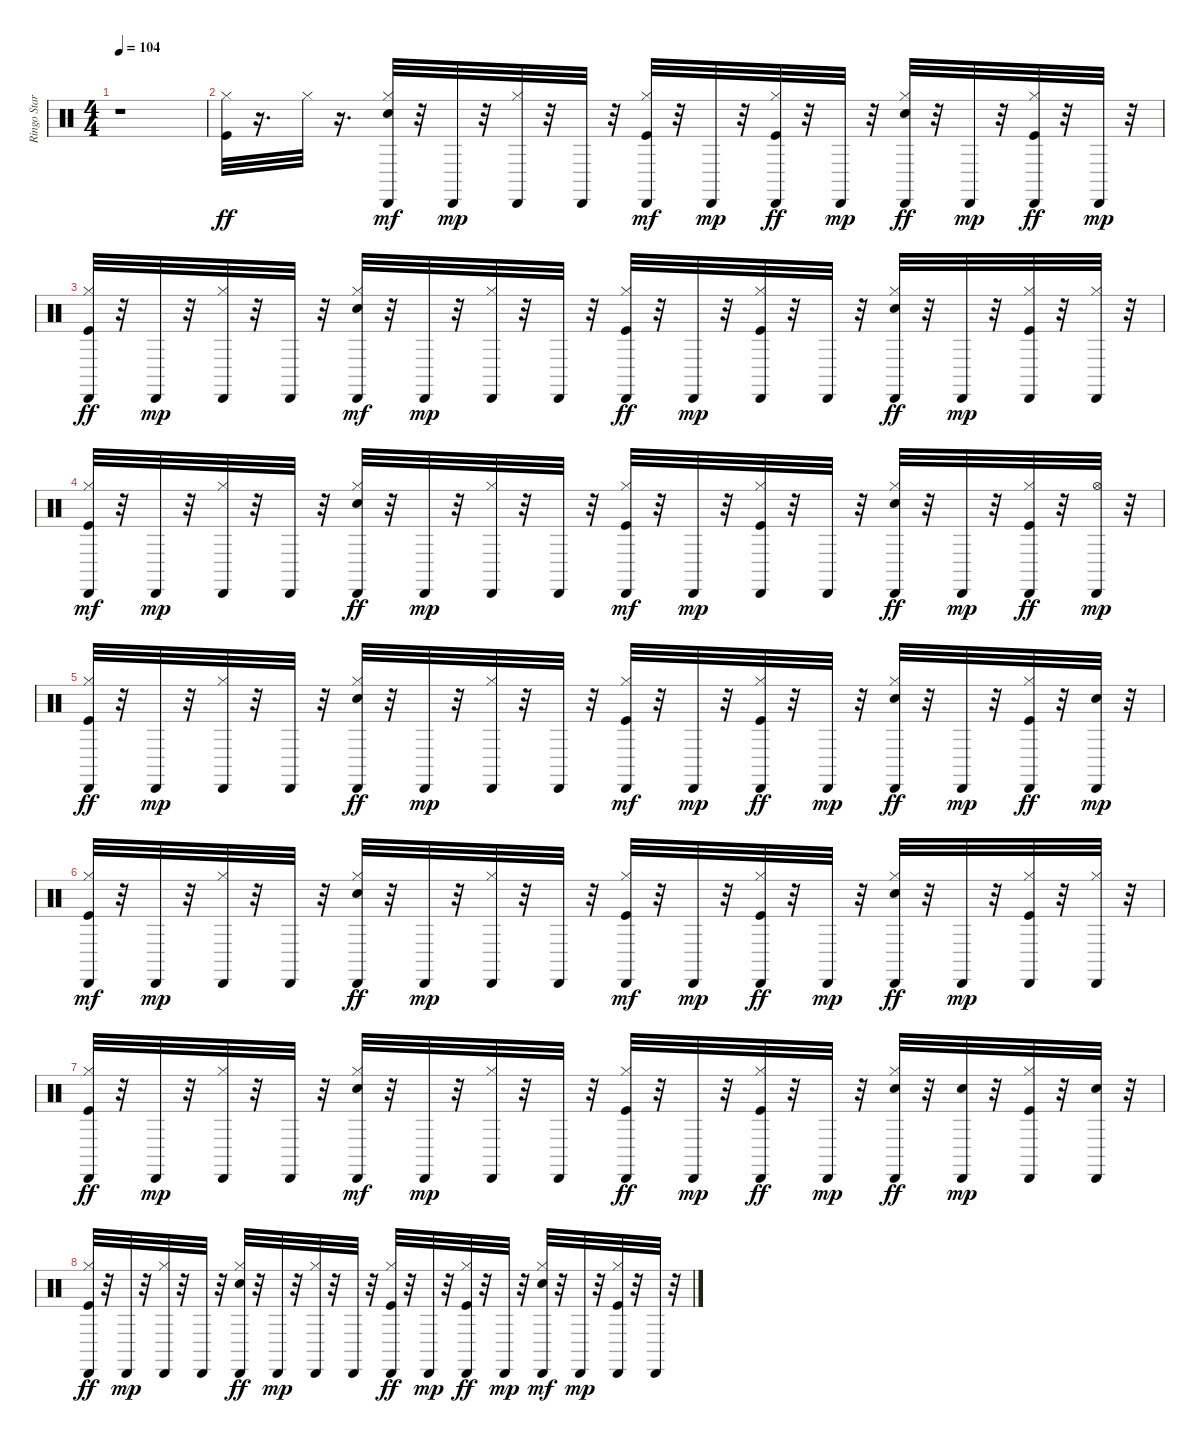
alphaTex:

\track ("Ringo Starr - Drums" "Ringo Star") {instrument percussion}
\staff {score}
\articulation defaults
\ts (4 4)
\tempo 104
\clef neutral
\ks c
r.1{dy ff} |
("Hi-Hat (closed)" "Kick (hit)").32 r.16{d} "Hi-Hat (closed)".32 r.16{d} ("Hi-Hat (closed)" "Snare (hit) 2" "Cabasa (hit)").32{dy mf} r.32 "Cabasa (hit)".32{dy mp} r.32 ("Hi-Hat (closed)" "Cabasa (hit)").32 r.32 "Cabasa (hit)".32 r.32 ("Hi-Hat (closed)" "Kick (hit)" "Cabasa (hit)").32{dy mf} r.32 "Cabasa (hit)".32{dy mp} r.32 ("Hi-Hat (closed)" "Cabasa (hit)" "Kick (hit)").32{dy ff} r.32 "Cabasa (hit)".32{dy mp} r.32 ("Hi-Hat (closed)" "Cabasa (hit)" "Snare (hit) 2").32{dy ff} r.32 "Cabasa (hit)".32{dy mp} r.32 ("Hi-Hat (closed)" "Cabasa (hit)" "Kick (hit)").32{dy ff} r.32 "Cabasa (hit)".32{dy mp} r.32 |
("Hi-Hat (closed)" "Cabasa (hit)" "Kick (hit)").32{dy ff} r.32 "Cabasa (hit)".32{dy mp} r.32 ("Hi-Hat (closed)" "Cabasa (hit)").32 r.32 "Cabasa (hit)".32 r.32 ("Hi-Hat (closed)" "Snare (hit) 2" "Cabasa (hit)").32{dy mf} r.32 "Cabasa (hit)".32{dy mp} r.32 ("Hi-Hat (closed)" "Cabasa (hit)").32 r.32 "Cabasa (hit)".32 r.32 ("Hi-Hat (closed)" "Cabasa (hit)" "Kick (hit)").32{dy ff} r.32 "Cabasa (hit)".32{dy mp} r.32 ("Hi-Hat (closed)" "Kick (hit)" "Cabasa (hit)").32 r.32 "Cabasa (hit)".32 r.32 ("Hi-Hat (closed)" "Cabasa (hit)" "Snare (hit) 2").32{dy ff} r.32 "Cabasa (hit)".32{dy mp} r.32 ("Hi-Hat (closed)" "Kick (hit)" "Cabasa (hit)").32 r.32 ("Hi-Hat (closed)" "Cabasa (hit)").32 r.32 |
("Hi-Hat (closed)" "Kick (hit)" "Cabasa (hit)").32{dy mf} r.32 "Cabasa (hit)".32{dy mp} r.32 ("Hi-Hat (closed)" "Cabasa (hit)").32 r.32 "Cabasa (hit)".32 r.32 ("Hi-Hat (closed)" "Cabasa (hit)" "Snare (hit) 2").32{dy ff} r.32 "Cabasa (hit)".32{dy mp} r.32 ("Hi-Hat (closed)" "Cabasa (hit)").32 r.32 "Cabasa (hit)".32 r.32 ("Hi-Hat (closed)" "Kick (hit)" "Cabasa (hit)").32{dy mf} r.32 "Cabasa (hit)".32{dy mp} r.32 ("Hi-Hat (closed)" "Kick (hit)" "Cabasa (hit)").32 r.32 "Cabasa (hit)".32 r.32 ("Hi-Hat (closed)" "Cabasa (hit)" "Snare (hit) 2").32{dy ff} r.32 "Cabasa (hit)".32{dy mp} r.32 ("Hi-Hat (closed)" "Cabasa (hit)" "Kick (hit)").32{dy ff} r.32 ("Hi-Hat (open)" "Cabasa (hit)").32{dy mp} r.32 |
("Hi-Hat (closed)" "Cabasa (hit)" "Kick (hit)").32{dy ff} r.32 "Cabasa (hit)".32{dy mp} r.32 ("Hi-Hat (closed)" "Cabasa (hit)").32 r.32 "Cabasa (hit)".32 r.32 ("Hi-Hat (closed)" "Cabasa (hit)" "Snare (hit) 2").32{dy ff} r.32 "Cabasa (hit)".32{dy mp} r.32 ("Hi-Hat (closed)" "Cabasa (hit)").32 r.32 "Cabasa (hit)".32 r.32 ("Hi-Hat (closed)" "Kick (hit)" "Cabasa (hit)").32{dy mf} r.32 "Cabasa (hit)".32{dy mp} r.32 ("Hi-Hat (closed)" "Cabasa (hit)" "Kick (hit)").32{dy ff} r.32 "Cabasa (hit)".32{dy mp} r.32 ("Hi-Hat (closed)" "Cabasa (hit)" "Snare (hit) 2").32{dy ff} r.32 "Cabasa (hit)".32{dy mp} r.32 ("Hi-Hat (closed)" "Cabasa (hit)" "Kick (hit)").32{dy ff} r.32 ("Cabasa (hit)" "Snare (hit) 2").32{dy mp} r.32 |
("Hi-Hat (closed)" "Kick (hit)" "Cabasa (hit)").32{dy mf} r.32 "Cabasa (hit)".32{dy mp} r.32 ("Hi-Hat (closed)" "Cabasa (hit)").32 r.32 "Cabasa (hit)".32 r.32 ("Hi-Hat (closed)" "Cabasa (hit)" "Snare (hit) 2").32{dy ff} r.32 "Cabasa (hit)".32{dy mp} r.32 ("Hi-Hat (closed)" "Cabasa (hit)").32 r.32 "Cabasa (hit)".32 r.32 ("Hi-Hat (closed)" "Kick (hit)" "Cabasa (hit)").32{dy mf} r.32 "Cabasa (hit)".32{dy mp} r.32 ("Hi-Hat (closed)" "Cabasa (hit)" "Kick (hit)").32{dy ff} r.32 "Cabasa (hit)".32{dy mp} r.32 ("Hi-Hat (closed)" "Cabasa (hit)" "Snare (hit) 2").32{dy ff} r.32 "Cabasa (hit)".32{dy mp} r.32 ("Hi-Hat (closed)" "Kick (hit)" "Cabasa (hit)").32 r.32 ("Hi-Hat (closed)" "Cabasa (hit)").32 r.32 |
("Hi-Hat (closed)" "Cabasa (hit)" "Kick (hit)").32{dy ff} r.32 "Cabasa (hit)".32{dy mp} r.32 ("Hi-Hat (closed)" "Cabasa (hit)").32 r.32 "Cabasa (hit)".32 r.32 ("Hi-Hat (closed)" "Snare (hit) 2" "Cabasa (hit)").32{dy mf} r.32 "Cabasa (hit)".32{dy mp} r.32 ("Hi-Hat (closed)" "Cabasa (hit)").32 r.32 "Cabasa (hit)".32 r.32 ("Hi-Hat (closed)" "Cabasa (hit)" "Kick (hit)").32{dy ff} r.32 "Cabasa (hit)".32{dy mp} r.32 ("Hi-Hat (closed)" "Cabasa (hit)" "Kick (hit)").32{dy ff} r.32 "Cabasa (hit)".32{dy mp} r.32 ("Hi-Hat (closed)" "Cabasa (hit)" "Snare (hit) 2").32{dy ff} r.32 ("Snare (hit) 2" "Cabasa (hit)").32{dy mp} r.32 ("Hi-Hat (closed)" "Kick (hit)" "Cabasa (hit)").32 r.32 ("Cabasa (hit)" "Snare (hit) 2").32 r.32 |
("Hi-Hat (closed)" "Cabasa (hit)" "Kick (hit)").32{dy ff} r.32 "Cabasa (hit)".32{dy mp} r.32 ("Hi-Hat (closed)" "Cabasa (hit)").32 r.32 "Cabasa (hit)".32 r.32 ("Hi-Hat (closed)" "Cabasa (hit)" "Snare (hit) 2").32{dy ff} r.32 "Cabasa (hit)".32{dy mp} r.32 ("Hi-Hat (closed)" "Cabasa (hit)").32 r.32 "Cabasa (hit)".32 r.32 ("Hi-Hat (closed)" "Cabasa (hit)" "Kick (hit)").32{dy ff} r.32 "Cabasa (hit)".32{dy mp} r.32 ("Hi-Hat (closed)" "Cabasa (hit)" "Kick (hit)").32{dy ff} r.32 "Cabasa (hit)".32{dy mp} r.32 ("Hi-Hat (closed)" "Snare (hit) 2" "Cabasa (hit)").32{dy mf} r.32 "Cabasa (hit)".32{dy mp} r.32 ("Hi-Hat (closed)" "Kick (hit)" "Cabasa (hit)").32 r.32 "Cabasa (hit)".32 r.32
